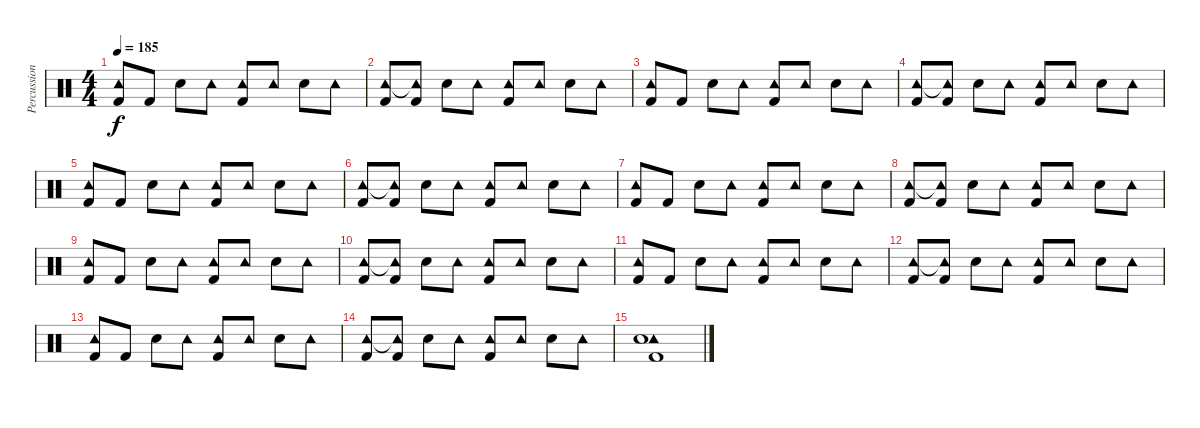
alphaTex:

\track ("Percussion" "Percussion") {instrument percussion}
\staff {score}
\articulation defaults
\ts (4 4)
\tempo 185
\clef neutral
\ks c
("Tambourine (hit)" "Kick (hit) 2").8{dy f} "Kick (hit) 2".8 "Electric Snare (hit)".8 "Tambourine (hit)".8 ("Tambourine (hit)" "Kick (hit) 2").8 "Tambourine (hit)".8 "Snare (hit) 2".8 "Tambourine (hit)".8 |
("Tambourine (hit)" "Kick (hit) 2").8 ("Tambourine (hit)"{t} "Kick (hit) 2").8 "Electric Snare (hit)".8 "Tambourine (hit)".8 ("Tambourine (hit)" "Kick (hit) 2").8 "Tambourine (hit)".8 "Electric Snare (hit)".8 "Tambourine (hit)".8 |
("Tambourine (hit)" "Kick (hit) 2").8 "Kick (hit) 2".8 "Electric Snare (hit)".8 "Tambourine (hit)".8 ("Tambourine (hit)" "Kick (hit) 2").8 "Tambourine (hit)".8 "Snare (hit) 2".8 "Tambourine (hit)".8 |
("Tambourine (hit)" "Kick (hit) 2").8 ("Tambourine (hit)"{t} "Kick (hit) 2").8 "Electric Snare (hit)".8 "Tambourine (hit)".8 ("Tambourine (hit)" "Kick (hit) 2").8 "Tambourine (hit)".8 "Electric Snare (hit)".8 "Tambourine (hit)".8 |
("Tambourine (hit)" "Kick (hit) 2").8 "Kick (hit) 2".8 "Electric Snare (hit)".8 "Tambourine (hit)".8 ("Tambourine (hit)" "Kick (hit) 2").8 "Tambourine (hit)".8 "Snare (hit) 2".8 "Tambourine (hit)".8 |
("Tambourine (hit)" "Kick (hit) 2").8 ("Tambourine (hit)"{t} "Kick (hit) 2").8 "Electric Snare (hit)".8 "Tambourine (hit)".8 ("Tambourine (hit)" "Kick (hit) 2").8 "Tambourine (hit)".8 "Electric Snare (hit)".8 "Tambourine (hit)".8 |
("Tambourine (hit)" "Kick (hit) 2").8 "Kick (hit) 2".8 "Electric Snare (hit)".8 "Tambourine (hit)".8 ("Tambourine (hit)" "Kick (hit) 2").8 "Tambourine (hit)".8 "Snare (hit) 2".8 "Tambourine (hit)".8 |
("Tambourine (hit)" "Kick (hit) 2").8 ("Tambourine (hit)"{t} "Kick (hit) 2").8 "Electric Snare (hit)".8 "Tambourine (hit)".8 ("Tambourine (hit)" "Kick (hit) 2").8 "Tambourine (hit)".8 "Electric Snare (hit)".8 "Tambourine (hit)".8 |
("Tambourine (hit)" "Kick (hit) 2").8 "Kick (hit) 2".8 "Electric Snare (hit)".8 "Tambourine (hit)".8 ("Tambourine (hit)" "Kick (hit) 2").8 "Tambourine (hit)".8 "Snare (hit) 2".8 "Tambourine (hit)".8 |
("Tambourine (hit)" "Kick (hit) 2").8 ("Tambourine (hit)"{t} "Kick (hit) 2").8 "Electric Snare (hit)".8 "Tambourine (hit)".8 ("Tambourine (hit)" "Kick (hit) 2").8 "Tambourine (hit)".8 "Electric Snare (hit)".8 "Tambourine (hit)".8 |
("Tambourine (hit)" "Kick (hit) 2").8 "Kick (hit) 2".8 "Electric Snare (hit)".8 "Tambourine (hit)".8 ("Tambourine (hit)" "Kick (hit) 2").8 "Tambourine (hit)".8 "Snare (hit) 2".8 "Tambourine (hit)".8 |
("Tambourine (hit)" "Kick (hit) 2").8 ("Tambourine (hit)"{t} "Kick (hit) 2").8 "Electric Snare (hit)".8 "Tambourine (hit)".8 ("Tambourine (hit)" "Kick (hit) 2").8 "Tambourine (hit)".8 "Electric Snare (hit)".8 "Tambourine (hit)".8 |
("Tambourine (hit)" "Kick (hit) 2").8 "Kick (hit) 2".8 "Electric Snare (hit)".8 "Tambourine (hit)".8 ("Tambourine (hit)" "Kick (hit) 2").8 "Tambourine (hit)".8 "Snare (hit) 2".8 "Tambourine (hit)".8 |
("Tambourine (hit)" "Kick (hit) 2").8 ("Tambourine (hit)"{t} "Kick (hit) 2").8 "Electric Snare (hit)".8 "Tambourine (hit)".8 ("Tambourine (hit)" "Kick (hit) 2").8 "Tambourine (hit)".8 "Electric Snare (hit)".8 "Tambourine (hit)".8 |
("Tambourine (hit)" "Kick (hit) 2" "Snare (hit) 2").1
